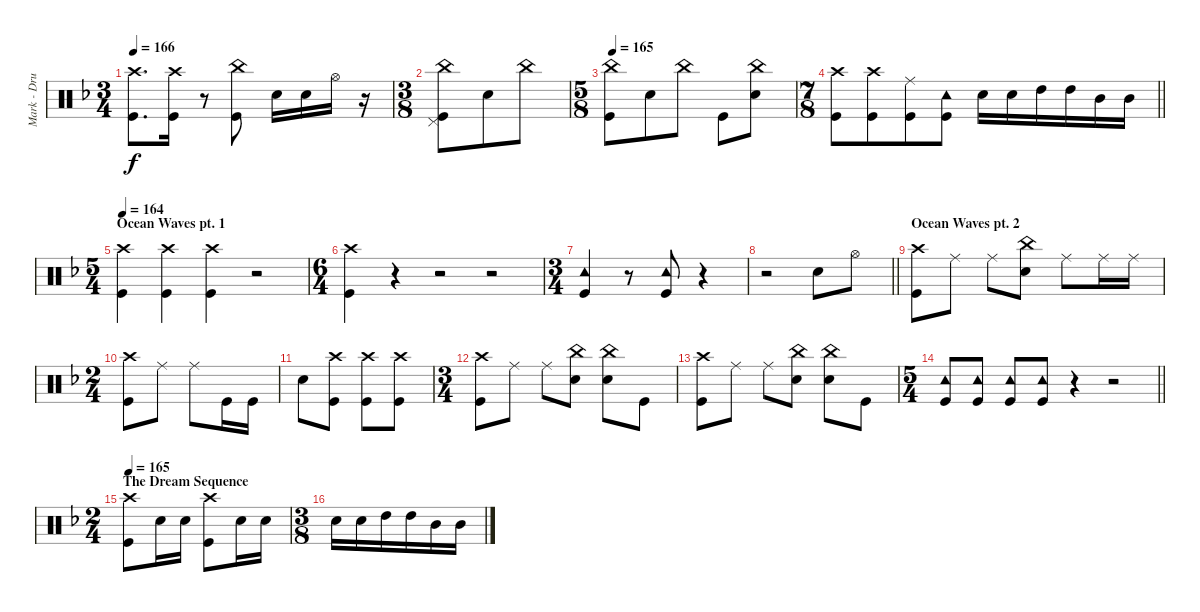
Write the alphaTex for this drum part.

\track ("Mark - Drums" "Mark - Dru") {instrument percussion}
\staff {score}
\articulation defaults
\ts (3 4)
\tempo 166
\clef neutral
\ks dminor
("Kick (hit)" "Crash high (hit)").8{d dy f} ("Kick (hit)" "Crash high (hit)").16 r.8 ("Kick (hit)" "China (hit)").8 "Snare (hit) 2".16 "Snare (hit) 2".16 "Hi-Hat (open)".16 r.16 |
\ts (3 8)
("China (hit)" "Kick (hit)" "Pedal Hi-Hat (hit)").8 "Snare (hit) 2".8 "China (hit)".8 |
\ts (5 8)
\tempo 165
("China (hit)" "Kick (hit)").8 "Snare (hit) 2".8 "China (hit)".8 "Kick (hit)".8 ("Snare (hit) 2" "China (hit)").8 |
\ts (7 8)
\barLineRight lightlight
("Kick (hit)" "Crash high (hit)").8 ("Kick (hit)" "Crash high (hit)").8 ("Kick (hit)" "Ride (middle)").8 ("Kick (hit)" "Tambourine (hit)").8 "Snare (hit) 2".16 "Snare (hit) 2".16 "High Tom (hit)".16 "High Tom (hit)".16 "Mid Tom (hit)".16 "Mid Tom (hit)".16 |
\ts (5 4)
\section ("" "Ocean Waves pt. 1")
\tempo 164
("Kick (hit)" "Crash high (hit)").4 ("Kick (hit)" "Crash high (hit)").4 ("Kick (hit)" "Crash high (hit)").4 r.2 |
\ts (6 4)
("Kick (hit)" "Crash high (hit)").4 r.4 r.2 r.2 |
\ts (3 4)
("Kick (hit)" "Tambourine (hit)").4 r.8 ("Kick (hit)" "Tambourine (hit)").8 r.4 |
\barLineRight lightlight
r.2 "Snare (hit) 2".8 "Hi-Hat (open)".8 |
\section ("" "Ocean Waves pt. 2")
("Kick (hit)" "Crash high (hit)").8 "Ride (middle)".8 "Ride (middle)".8 ("Snare (hit) 2" "China (hit)").8 "Ride (middle)".8 "Ride (middle)".16 "Ride (middle)".16 |
\ts (2 4)
("Kick (hit)" "Crash high (hit)").8 "Ride (middle)".8 "Ride (middle)".8 "Kick (hit)".16 "Kick (hit)".16 |
"Snare (hit) 2".8 ("Kick (hit)" "Crash high (hit)").8 ("Kick (hit)" "Crash high (hit)").8 ("Kick (hit)" "Crash high (hit)").8 |
\ts (3 4)
("Kick (hit)" "Crash high (hit)").8 "Ride (middle)".8 "Ride (middle)".8 ("Snare (hit) 2" "China (hit)").8 ("Snare (hit) 2" "China (hit)").8 "Kick (hit)".8 |
("Kick (hit)" "Crash high (hit)").8 "Ride (middle)".8 "Ride (middle)".8 ("Snare (hit) 2" "China (hit)").8 ("Snare (hit) 2" "China (hit)").8 "Kick (hit)".8 |
\ts (5 4)
\barLineRight lightlight
("Kick (hit)" "Tambourine (hit)").8 ("Kick (hit)" "Tambourine (hit)").8 ("Kick (hit)" "Tambourine (hit)").8 ("Kick (hit)" "Tambourine (hit)").8 r.4 r.2 |
\ts (2 4)
\section ("" "The Dream Sequence")
\tempo 165
("Kick (hit)" "Crash high (hit)").8 "Snare (hit) 2".16 "Snare (hit) 2".16 ("Kick (hit)" "Crash high (hit)").8 "Snare (hit) 2".16 "Snare (hit) 2".16 |
\ts (3 8)
"Snare (hit) 2".16 "Snare (hit) 2".16 "High Tom (hit)".16 "High Tom (hit)".16 "Mid Tom (hit)".16 "Mid Tom (hit)".16
